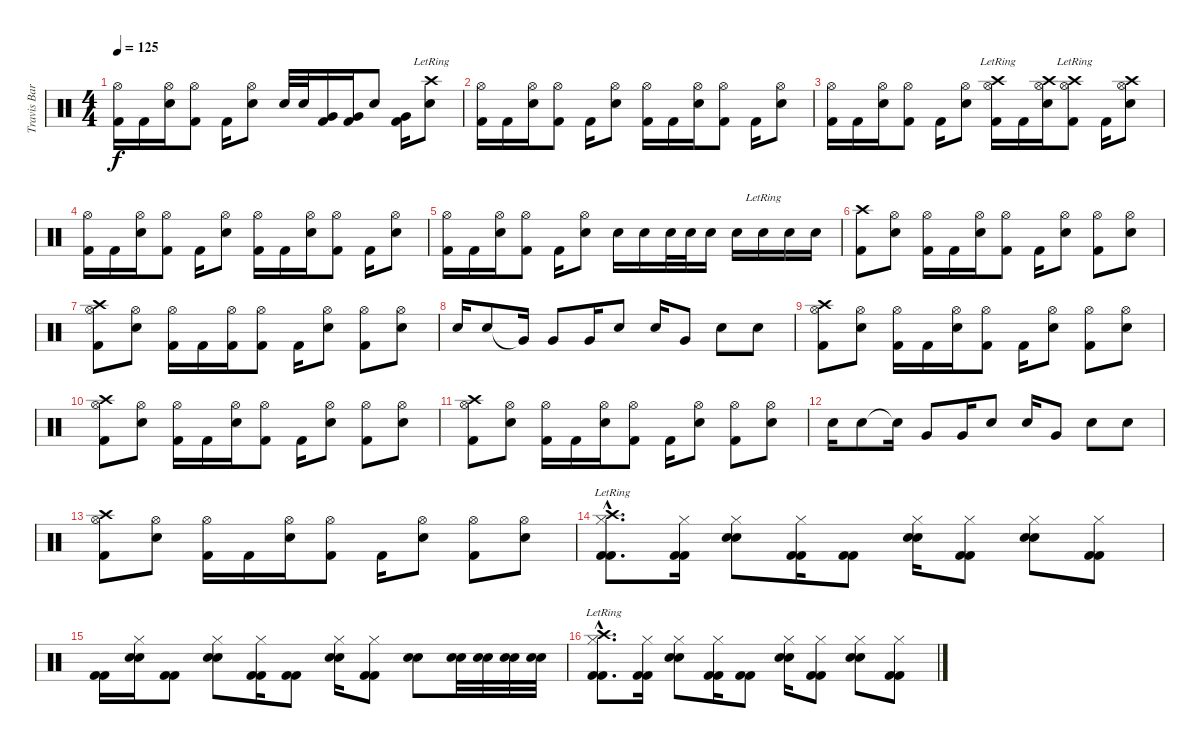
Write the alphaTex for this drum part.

\track ("Travis Barker - Drums" "Travis Bar") {instrument percussion}
\staff {score}
\articulation defaults
\ts (4 4)
\tempo 125
\clef neutral
\ks c
("Hi-Hat (open)" "Kick (hit) 2").16{dy f} "Kick (hit) 2".16 ("Hi-Hat (open)" "Electric Snare (hit)").16 ("Hi-Hat (open)" "Kick (hit) 2").8 "Kick (hit) 2".16 ("Hi-Hat (open)" "Electric Snare (hit)").8 "Electric Snare (hit)".32 "Electric Snare (hit)".32 ("Very Low Tom (hit)" "Kick (hit) 2").16 ("Very Low Tom (hit)" "Kick (hit) 2").16 "Electric Snare (hit)".8 ("Very Low Tom (hit)" "Kick (hit) 2").16 ("Crash high (hit)" "Electric Snare (hit)"{lr}).8 |
("Hi-Hat (open)" "Kick (hit) 2").16 "Kick (hit) 2".16 ("Hi-Hat (open)" "Electric Snare (hit)").16 ("Hi-Hat (open)" "Kick (hit) 2").8 "Kick (hit) 2".16 ("Hi-Hat (open)" "Electric Snare (hit)").8 ("Hi-Hat (open)" "Kick (hit) 2").16 "Kick (hit) 2".16 ("Hi-Hat (open)" "Electric Snare (hit)").16 ("Hi-Hat (open)" "Kick (hit) 2").8 "Kick (hit) 2".16 ("Hi-Hat (open)" "Electric Snare (hit)").8 |
("Hi-Hat (open)" "Kick (hit) 2").16 "Kick (hit) 2".16 ("Hi-Hat (open)" "Electric Snare (hit)").16 ("Hi-Hat (open)" "Kick (hit) 2").8 "Kick (hit) 2".16 ("Hi-Hat (open)" "Electric Snare (hit)").8 ("Crash high (hit)" "Hi-Hat (open)" "Kick (hit) 2"{lr}).16 "Kick (hit) 2".16 ("Crash high (hit)" "Hi-Hat (open)" "Electric Snare (hit)").16 ("Crash high (hit)" "Hi-Hat (open)" "Kick (hit) 2"{lr}).8 "Kick (hit) 2".16 ("Crash high (hit)" "Hi-Hat (open)" "Electric Snare (hit)").8 |
("Hi-Hat (open)" "Kick (hit) 2").16 "Kick (hit) 2".16 ("Hi-Hat (open)" "Electric Snare (hit)").16 ("Hi-Hat (open)" "Kick (hit) 2").8 "Kick (hit) 2".16 ("Hi-Hat (open)" "Electric Snare (hit)").8 ("Hi-Hat (open)" "Kick (hit) 2").16 "Kick (hit) 2".16 ("Hi-Hat (open)" "Electric Snare (hit)").16 ("Hi-Hat (open)" "Kick (hit) 2").8 "Kick (hit) 2".16 ("Hi-Hat (open)" "Electric Snare (hit)").8 |
("Hi-Hat (open)" "Kick (hit) 2").16 "Kick (hit) 2".16 ("Hi-Hat (open)" "Electric Snare (hit)").16 ("Hi-Hat (open)" "Kick (hit) 2").8 "Kick (hit) 2".16 ("Hi-Hat (open)" "Electric Snare (hit)").8 "Electric Snare (hit)".16 "Electric Snare (hit)".16 "Electric Snare (hit)".32 "Electric Snare (hit)".32 "Electric Snare (hit)".16 "Electric Snare (hit)".16 "Electric Snare (hit)"{lr}.16 "Electric Snare (hit)".16 "Electric Snare (hit)".16 |
("Crash high (hit)" "Kick (hit) 2").8 ("Hi-Hat (open)" "Electric Snare (hit)").8 ("Hi-Hat (open)" "Kick (hit) 2").16 "Kick (hit) 2".16 ("Hi-Hat (open)" "Electric Snare (hit)").16 ("Hi-Hat (open)" "Kick (hit) 2").8 "Kick (hit) 2".16 ("Hi-Hat (open)" "Electric Snare (hit)").8 ("Hi-Hat (open)" "Kick (hit) 2").8 ("Hi-Hat (open)" "Electric Snare (hit)").8 |
("Crash high (hit)" "Hi-Hat (open)" "Kick (hit) 2").8 ("Hi-Hat (open)" "Electric Snare (hit)").8 ("Hi-Hat (open)" "Kick (hit) 2").16 "Kick (hit) 2".16 ("Hi-Hat (open)" "Kick (hit) 2").16 ("Hi-Hat (open)" "Kick (hit) 2").8 "Kick (hit) 2".16 ("Hi-Hat (open)" "Electric Snare (hit)").8 ("Hi-Hat (open)" "Kick (hit) 2").8 ("Hi-Hat (open)" "Electric Snare (hit)").8 |
"Electric Snare (hit)".16 "Electric Snare (hit)".8 "Very Low Tom (hit)"{t}.16 "Very Low Tom (hit)".8 "Very Low Tom (hit)".16 "Electric Snare (hit)".8 "Electric Snare (hit)".16 "Very Low Tom (hit)".8 "Electric Snare (hit)".8 "Electric Snare (hit)".8 |
("Crash high (hit)" "Hi-Hat (open)" "Kick (hit) 2").8 ("Hi-Hat (open)" "Electric Snare (hit)").8 ("Hi-Hat (open)" "Kick (hit) 2").16 "Kick (hit) 2".16 ("Hi-Hat (open)" "Electric Snare (hit)").16 ("Hi-Hat (open)" "Kick (hit) 2").8 "Kick (hit) 2".16 ("Hi-Hat (open)" "Electric Snare (hit)").8 ("Hi-Hat (open)" "Kick (hit) 2").8 ("Hi-Hat (open)" "Electric Snare (hit)").8 |
("Crash high (hit)" "Hi-Hat (open)" "Kick (hit) 2").8 ("Hi-Hat (open)" "Electric Snare (hit)").8 ("Hi-Hat (open)" "Kick (hit) 2").16 "Kick (hit) 2".16 ("Hi-Hat (open)" "Electric Snare (hit)").16 ("Hi-Hat (open)" "Kick (hit) 2").8 "Kick (hit) 2".16 ("Hi-Hat (open)" "Electric Snare (hit)").8 ("Hi-Hat (open)" "Kick (hit) 2").8 ("Hi-Hat (open)" "Electric Snare (hit)").8 |
("Crash high (hit)" "Hi-Hat (open)" "Kick (hit) 2").8 ("Hi-Hat (open)" "Electric Snare (hit)").8 ("Hi-Hat (open)" "Kick (hit) 2").16 "Kick (hit) 2".16 ("Hi-Hat (open)" "Electric Snare (hit)").16 ("Hi-Hat (open)" "Kick (hit) 2").8 "Kick (hit) 2".16 ("Hi-Hat (open)" "Electric Snare (hit)").8 ("Hi-Hat (open)" "Kick (hit) 2").8 ("Hi-Hat (open)" "Electric Snare (hit)").8 |
"Electric Snare (hit)".16 "Electric Snare (hit)".8 "Snare (hit)"{t}.16 "Very Low Tom (hit)".8 "Very Low Tom (hit)".16 "Electric Snare (hit)".8 "Electric Snare (hit)".16 "Very Low Tom (hit)".8 "Electric Snare (hit)".8 "Electric Snare (hit)".8 |
("Crash high (hit)" "Hi-Hat (open)" "Kick (hit) 2").8 ("Hi-Hat (open)" "Electric Snare (hit)").8 ("Hi-Hat (open)" "Kick (hit) 2").16 "Kick (hit) 2".16 ("Hi-Hat (open)" "Electric Snare (hit)").16 ("Hi-Hat (open)" "Kick (hit) 2").8 "Kick (hit) 2".16 ("Hi-Hat (open)" "Electric Snare (hit)").8 ("Hi-Hat (open)" "Kick (hit) 2").8 ("Hi-Hat (open)" "Electric Snare (hit)").8 |
("Kick (hit) 2"{hac} "Kick (hit) 2"{hac} "Hi-Hat (closed)"{hac} "Crash high (hit)"{hac lr}).8{d} ("Kick (hit) 2" "Kick (hit) 2" "Hi-Hat (closed)").16 ("Snare (hit) 2" "Snare (hit) 2" "Hi-Hat (closed)").8 ("Kick (hit) 2" "Kick (hit) 2" "Hi-Hat (closed)").16 ("Kick (hit) 2" "Kick (hit) 2").8 ("Snare (hit) 2" "Snare (hit) 2" "Hi-Hat (closed)").16 ("Kick (hit) 2" "Kick (hit) 2" "Hi-Hat (closed)").8 ("Snare (hit) 2" "Snare (hit) 2" "Hi-Hat (closed)").8 ("Kick (hit) 2" "Kick (hit) 2" "Hi-Hat (closed)").8 |
("Kick (hit) 2" "Kick (hit) 2").16 ("Snare (hit) 2" "Snare (hit) 2" "Hi-Hat (closed)").16 ("Kick (hit) 2" "Kick (hit) 2").8 ("Snare (hit) 2" "Snare (hit) 2" "Hi-Hat (closed)").8 ("Kick (hit) 2" "Kick (hit) 2" "Hi-Hat (closed)").16 ("Kick (hit) 2" "Kick (hit) 2").8 ("Snare (hit) 2" "Snare (hit) 2" "Hi-Hat (closed)").16 ("Kick (hit) 2" "Kick (hit) 2" "Hi-Hat (closed)").8 ("Snare (hit) 2" "Snare (hit) 2").8 ("Snare (hit) 2" "Snare (hit) 2").32 ("Snare (hit) 2" "Snare (hit) 2").32 ("Snare (hit) 2" "Snare (hit) 2").32 ("Snare (hit) 2" "Snare (hit) 2").32 |
("Kick (hit) 2"{hac} "Kick (hit) 2"{hac} "Hi-Hat (closed)"{hac} "Crash high (hit)"{hac lr}).8{d} ("Kick (hit) 2" "Kick (hit) 2" "Hi-Hat (closed)").16 ("Snare (hit) 2" "Snare (hit) 2" "Hi-Hat (closed)").8 ("Kick (hit) 2" "Kick (hit) 2" "Hi-Hat (closed)").16 ("Kick (hit) 2" "Kick (hit) 2").8 ("Snare (hit) 2" "Snare (hit) 2" "Hi-Hat (closed)").16 ("Kick (hit) 2" "Kick (hit) 2" "Hi-Hat (closed)").8 ("Snare (hit) 2" "Snare (hit) 2" "Hi-Hat (closed)").8 ("Kick (hit) 2" "Kick (hit) 2" "Hi-Hat (closed)").8
